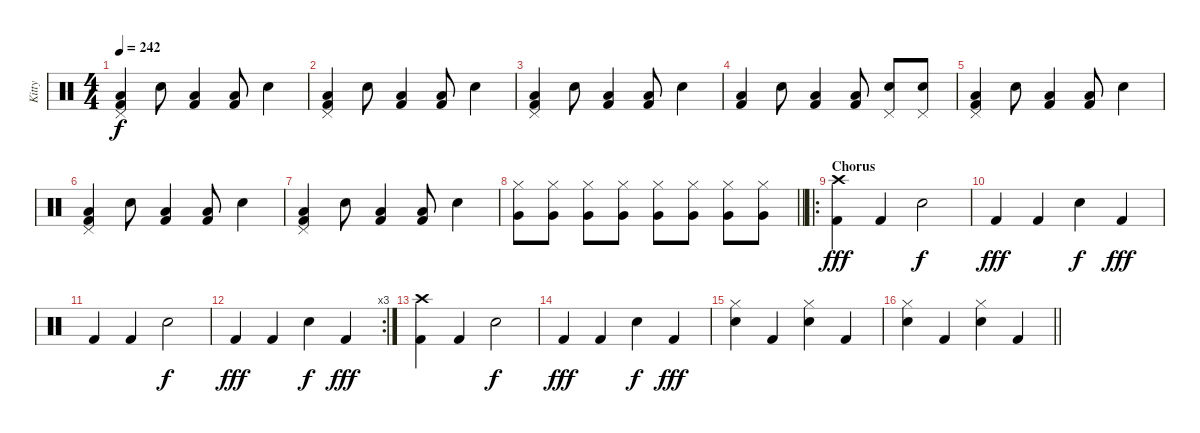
\track ("Kitty" "Kitty") {instrument percussion}
\staff {score}
\articulation defaults
\ts (4 4)
\tempo 242
\clef neutral
\ks c
("Pedal Hi-Hat (hit)" "Low Tom (hit)" "Kick (hit) 2").4{dy f volume 16} "Electric Snare (hit)".8 ("Low Tom (hit)" "Kick (hit) 2").4 ("Low Tom (hit)" "Kick (hit) 2").8 "Electric Snare (hit)".4 |
("Pedal Hi-Hat (hit)" "Low Tom (hit)" "Kick (hit) 2").4 "Electric Snare (hit)".8 ("Low Tom (hit)" "Kick (hit) 2").4 ("Low Tom (hit)" "Kick (hit) 2").8 "Electric Snare (hit)".4 |
("Pedal Hi-Hat (hit)" "Low Tom (hit)" "Kick (hit) 2").4 "Electric Snare (hit)".8 ("Low Tom (hit)" "Kick (hit) 2").4 ("Low Tom (hit)" "Kick (hit) 2").8 "Electric Snare (hit)".4 |
("Low Tom (hit)" "Kick (hit) 2").4 "Electric Snare (hit)".8 ("Low Tom (hit)" "Kick (hit) 2").4 ("Low Tom (hit)" "Kick (hit) 2").8 ("Electric Snare (hit)" "Pedal Hi-Hat (hit)").8 ("Electric Snare (hit)" "Pedal Hi-Hat (hit)").8 |
("Pedal Hi-Hat (hit)" "Low Tom (hit)" "Kick (hit) 2").4{volume 16} "Electric Snare (hit)".8 ("Low Tom (hit)" "Kick (hit) 2").4 ("Low Tom (hit)" "Kick (hit) 2").8 "Electric Snare (hit)".4 |
("Pedal Hi-Hat (hit)" "Low Tom (hit)" "Kick (hit) 2").4 "Electric Snare (hit)".8 ("Low Tom (hit)" "Kick (hit) 2").4 ("Low Tom (hit)" "Kick (hit) 2").8 "Electric Snare (hit)".4 |
("Pedal Hi-Hat (hit)" "Low Tom (hit)" "Kick (hit) 2").4 "Electric Snare (hit)".8 ("Low Tom (hit)" "Kick (hit) 2").4 ("Low Tom (hit)" "Kick (hit) 2").8 "Electric Snare (hit)".4 |
\barLineRight lightlight
("Hi-Hat (closed)" "Very Low Tom (hit)").8 ("Hi-Hat (closed)" "Very Low Tom (hit)").8 ("Hi-Hat (closed)" "Very Low Tom (hit)").8 ("Hi-Hat (closed)" "Very Low Tom (hit)").8 ("Hi-Hat (closed)" "Very Low Tom (hit)").8 ("Hi-Hat (closed)" "Very Low Tom (hit)").8 ("Hi-Hat (closed)" "Very Low Tom (hit)").8 ("Hi-Hat (closed)" "Very Low Tom (hit)").8 |
\ro
\section ("" "Chorus")
("Crash high (hit)" "Kick (hit) 2").4{dy fff} "Kick (hit) 2".4 "Snare (hit) 2".2{dy f} |
"Kick (hit) 2".4{dy fff} "Kick (hit) 2".4 "Snare (hit) 2".4{dy f} "Kick (hit) 2".4{dy fff} |
"Kick (hit) 2".4 "Kick (hit) 2".4 "Snare (hit) 2".2{dy f} |
\rc 3 "Kick (hit) 2".4{dy fff} "Kick (hit) 2".4 "Snare (hit) 2".4{dy f} "Kick (hit) 2".4{dy fff}
|
("Crash high (hit)" "Kick (hit) 2").4 "Kick (hit) 2".4 "Snare (hit) 2".2{dy f} |
"Kick (hit) 2".4{dy fff} "Kick (hit) 2".4 "Snare (hit) 2".4{dy f} "Kick (hit) 2".4{dy fff} |
("Snare (hit) 2" "Hi-Hat (closed)").4 "Kick (hit) 2".4 ("Snare (hit) 2" "Hi-Hat (closed)").4 "Kick (hit) 2".4 |
\barLineRight lightlight
("Snare (hit) 2" "Hi-Hat (closed)").4 "Kick (hit) 2".4 ("Snare (hit) 2" "Hi-Hat (closed)").4 "Kick (hit) 2".4
